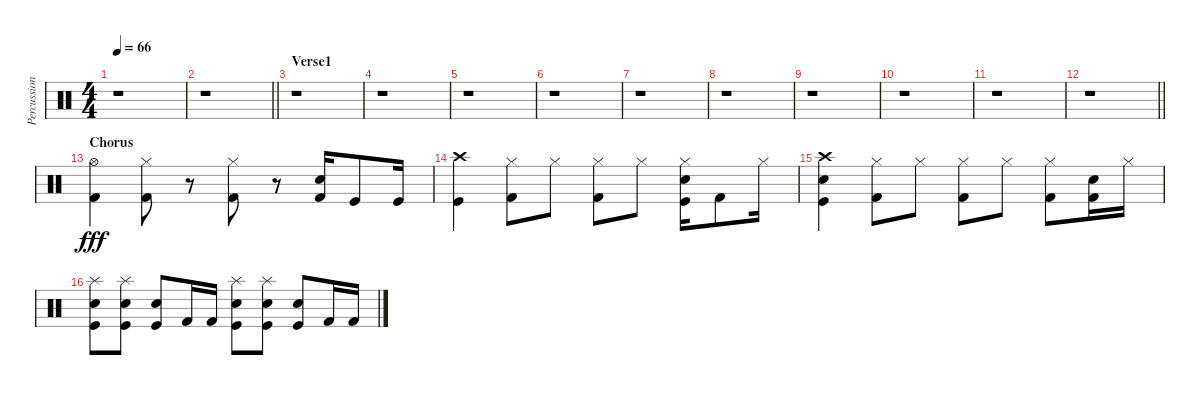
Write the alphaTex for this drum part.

\track ("Percussion" "Percussion") {instrument percussion}
\staff {score}
\articulation defaults
\ts (4 4)
\tempo 66
\clef neutral
\ks c
r.1{dy fff} |
\barLineRight lightlight
r.1 |
\section ("" "Verse1")
r.1 |
r.1 |
r.1 |
r.1 |
r.1 |
r.1 |
r.1 |
r.1 |
r.1 |
\barLineRight lightlight
r.1 |
\section ("" "Chorus")
("Hi-Hat (open)" "Kick (hit) 2").4 ("Hi-Hat (closed)" "Kick (hit) 2").8 r.8 ("Hi-Hat (closed)" "Kick (hit) 2").8 r.8 ("Snare (hit) 2" "Kick (hit) 2").16 "Kick (hit)".8 "Kick (hit)".16 |
("Crash high (hit)" "Kick (hit)").4 ("Hi-Hat (closed)" "Kick (hit) 2").8 "Hi-Hat (closed)".8 ("Hi-Hat (closed)" "Kick (hit) 2").8 "Hi-Hat (closed)".8 ("Hi-Hat (closed)" "Snare (hit) 2" "Kick (hit)").16 "Kick (hit) 2".8 "Hi-Hat (closed)".16 |
("Crash high (hit)" "Snare (hit) 2" "Kick (hit)").4 ("Hi-Hat (closed)" "Kick (hit) 2").8 "Hi-Hat (closed)".8 ("Hi-Hat (closed)" "Kick (hit) 2").8 "Hi-Hat (closed)".8 ("Hi-Hat (closed)" "Kick (hit) 2").8 ("Snare (hit) 2" "Kick (hit) 2").16 "Hi-Hat (closed)".16 |
("Splash (hit)" "Snare (hit) 2" "Kick (hit)").8 ("Splash (hit)" "Snare (hit) 2" "Kick (hit)").8 ("Snare (hit) 2" "Kick (hit)").8 "Kick (hit) 2".16 "Kick (hit) 2".16 ("Splash (hit)" "Snare (hit) 2" "Kick (hit)").8 ("Splash (hit)" "Snare (hit) 2" "Kick (hit)").8 ("Snare (hit) 2" "Kick (hit)").8 "Kick (hit) 2".16 "Kick (hit) 2".16
